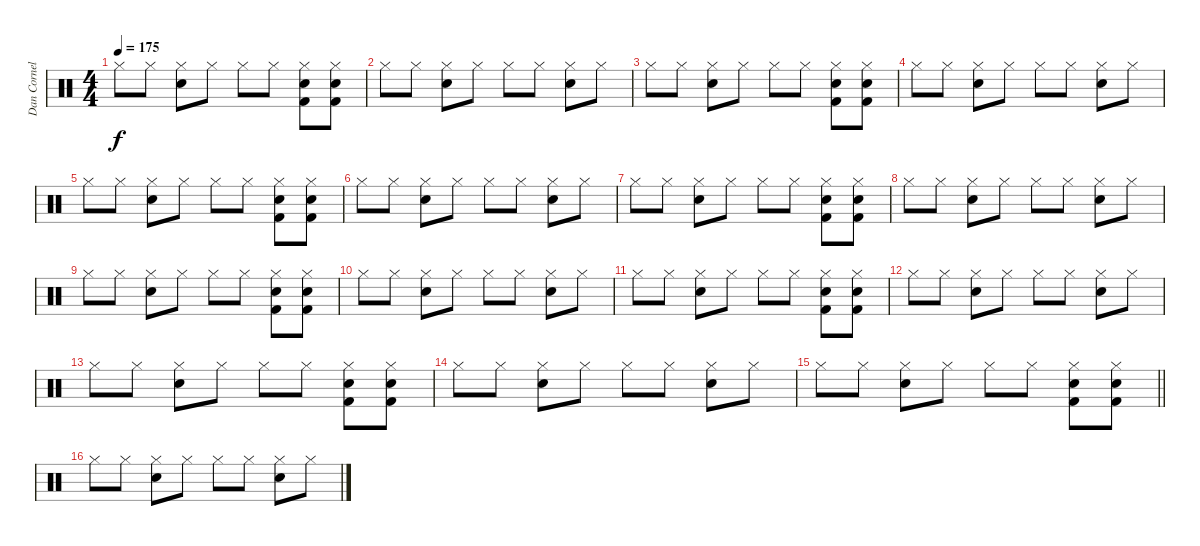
\track ("Dan Cornelius" "Dan Cornel") {instrument percussion}
\staff {score}
\articulation defaults
\ts (4 4)
\tempo 175
\clef neutral
\ks c "Hi-Hat (closed)".8{dy f} "Hi-Hat (closed)".8
("Hi-Hat (closed)" "Electric Snare (hit)").8 "Hi-Hat (closed)".8 "Hi-Hat (closed)".8 "Hi-Hat (closed)".8 ("Hi-Hat (closed)" "Kick (hit) 2" "Electric Snare (hit)").8 ("Hi-Hat (closed)" "Kick (hit) 2" "Electric Snare (hit)").8 |
"Hi-Hat (closed)".8 "Hi-Hat (closed)".8 ("Hi-Hat (closed)" "Electric Snare (hit)").8 "Hi-Hat (closed)".8 "Hi-Hat (closed)".8 "Hi-Hat (closed)".8 ("Hi-Hat (closed)" "Electric Snare (hit)").8 "Hi-Hat (closed)".8 |
"Hi-Hat (closed)".8 "Hi-Hat (closed)".8 ("Hi-Hat (closed)" "Electric Snare (hit)").8 "Hi-Hat (closed)".8 "Hi-Hat (closed)".8 "Hi-Hat (closed)".8 ("Hi-Hat (closed)" "Kick (hit) 2" "Electric Snare (hit)").8 ("Hi-Hat (closed)" "Kick (hit) 2" "Electric Snare (hit)").8 |
"Hi-Hat (closed)".8 "Hi-Hat (closed)".8 ("Hi-Hat (closed)" "Electric Snare (hit)").8 "Hi-Hat (closed)".8 "Hi-Hat (closed)".8 "Hi-Hat (closed)".8 ("Hi-Hat (closed)" "Electric Snare (hit)").8 "Hi-Hat (closed)".8 |
"Hi-Hat (closed)".8 "Hi-Hat (closed)".8 ("Hi-Hat (closed)" "Electric Snare (hit)").8 "Hi-Hat (closed)".8 "Hi-Hat (closed)".8 "Hi-Hat (closed)".8 ("Hi-Hat (closed)" "Kick (hit) 2" "Electric Snare (hit)").8 ("Hi-Hat (closed)" "Kick (hit) 2" "Electric Snare (hit)").8 |
"Hi-Hat (closed)".8 "Hi-Hat (closed)".8 ("Hi-Hat (closed)" "Electric Snare (hit)").8 "Hi-Hat (closed)".8 "Hi-Hat (closed)".8 "Hi-Hat (closed)".8 ("Hi-Hat (closed)" "Electric Snare (hit)").8 "Hi-Hat (closed)".8 |
"Hi-Hat (closed)".8 "Hi-Hat (closed)".8 ("Hi-Hat (closed)" "Electric Snare (hit)").8 "Hi-Hat (closed)".8 "Hi-Hat (closed)".8 "Hi-Hat (closed)".8 ("Hi-Hat (closed)" "Kick (hit) 2" "Electric Snare (hit)").8 ("Hi-Hat (closed)" "Kick (hit) 2" "Electric Snare (hit)").8 |
"Hi-Hat (closed)".8 "Hi-Hat (closed)".8 ("Hi-Hat (closed)" "Electric Snare (hit)").8 "Hi-Hat (closed)".8 "Hi-Hat (closed)".8 "Hi-Hat (closed)".8 ("Hi-Hat (closed)" "Electric Snare (hit)").8 "Hi-Hat (closed)".8 |
"Hi-Hat (closed)".8 "Hi-Hat (closed)".8 ("Hi-Hat (closed)" "Electric Snare (hit)").8 "Hi-Hat (closed)".8 "Hi-Hat (closed)".8 "Hi-Hat (closed)".8 ("Hi-Hat (closed)" "Kick (hit) 2" "Electric Snare (hit)").8 ("Hi-Hat (closed)" "Kick (hit) 2" "Electric Snare (hit)").8 |
"Hi-Hat (closed)".8 "Hi-Hat (closed)".8 ("Hi-Hat (closed)" "Electric Snare (hit)").8 "Hi-Hat (closed)".8 "Hi-Hat (closed)".8 "Hi-Hat (closed)".8 ("Hi-Hat (closed)" "Electric Snare (hit)").8 "Hi-Hat (closed)".8 |
"Hi-Hat (closed)".8 "Hi-Hat (closed)".8 ("Hi-Hat (closed)" "Electric Snare (hit)").8 "Hi-Hat (closed)".8 "Hi-Hat (closed)".8 "Hi-Hat (closed)".8 ("Hi-Hat (closed)" "Kick (hit) 2" "Electric Snare (hit)").8 ("Hi-Hat (closed)" "Kick (hit) 2" "Electric Snare (hit)").8 |
"Hi-Hat (closed)".8 "Hi-Hat (closed)".8 ("Hi-Hat (closed)" "Electric Snare (hit)").8 "Hi-Hat (closed)".8 "Hi-Hat (closed)".8 "Hi-Hat (closed)".8 ("Hi-Hat (closed)" "Electric Snare (hit)").8 "Hi-Hat (closed)".8 |
"Hi-Hat (closed)".8 "Hi-Hat (closed)".8 ("Hi-Hat (closed)" "Electric Snare (hit)").8 "Hi-Hat (closed)".8 "Hi-Hat (closed)".8 "Hi-Hat (closed)".8 ("Hi-Hat (closed)" "Kick (hit) 2" "Electric Snare (hit)").8 ("Hi-Hat (closed)" "Kick (hit) 2" "Electric Snare (hit)").8 |
"Hi-Hat (closed)".8 "Hi-Hat (closed)".8 ("Hi-Hat (closed)" "Electric Snare (hit)").8 "Hi-Hat (closed)".8 "Hi-Hat (closed)".8 "Hi-Hat (closed)".8 ("Hi-Hat (closed)" "Electric Snare (hit)").8 "Hi-Hat (closed)".8 |
\barLineRight lightlight "Hi-Hat (closed)".8 "Hi-Hat (closed)".8
("Hi-Hat (closed)" "Electric Snare (hit)").8 "Hi-Hat (closed)".8 "Hi-Hat (closed)".8 "Hi-Hat (closed)".8 ("Hi-Hat (closed)" "Kick (hit) 2" "Electric Snare (hit)").8 ("Hi-Hat (closed)" "Kick (hit) 2" "Electric Snare (hit)").8 |
\section ("" "")
"Hi-Hat (closed)".8 "Hi-Hat (closed)".8 ("Hi-Hat (closed)" "Electric Snare (hit)").8 "Hi-Hat (closed)".8 "Hi-Hat (closed)".8 "Hi-Hat (closed)".8 ("Hi-Hat (closed)" "Electric Snare (hit)").8 "Hi-Hat (closed)".8
